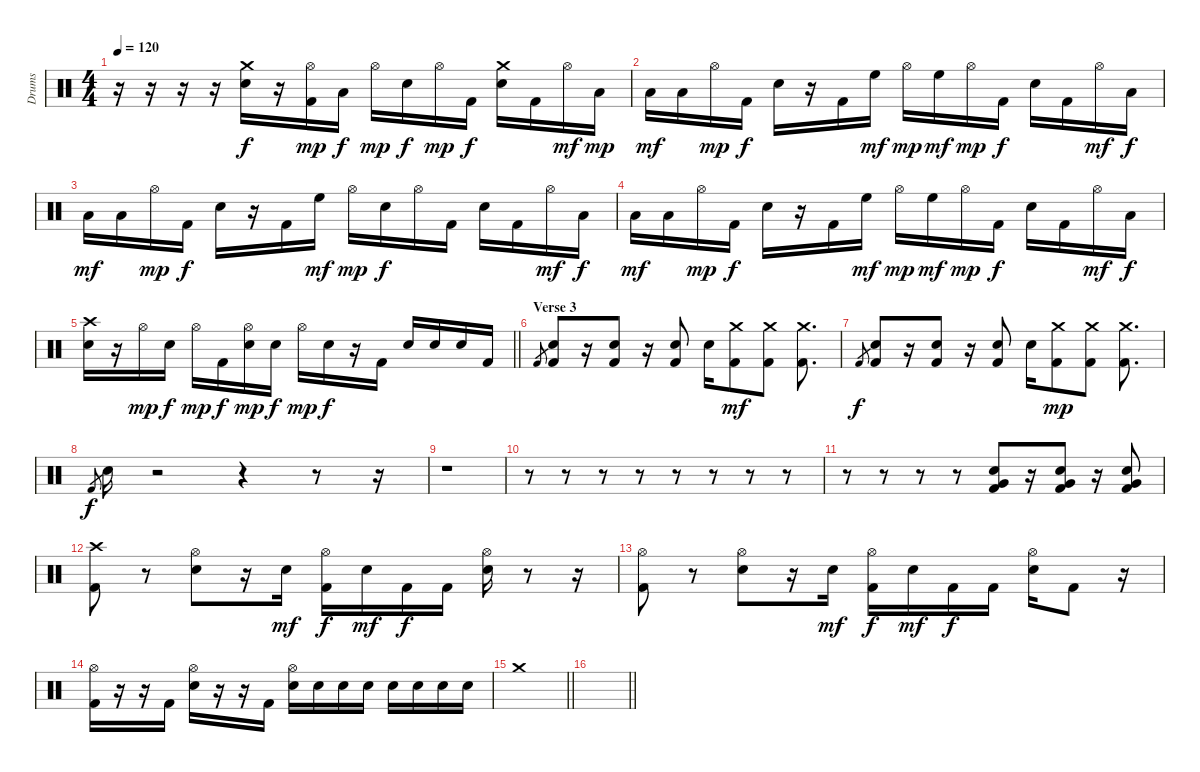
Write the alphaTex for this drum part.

\track ("Drums" "Drums") {instrument percussion}
\staff {score}
\articulation defaults
\ts (4 4)
\tempo 120
\clef neutral
\ks c
r.16{dy mp} r.16 r.16 r.16 ("Crash medium (hit)" "Electric Snare (hit)").16{dy f} r.16 ("Hi-Hat (open)" "Kick (hit) 2").16{dy mp} "Low Tom (hit)".16{dy f} "Hi-Hat (open)".16{dy mp} "Electric Snare (hit)".16{dy f} "Hi-Hat (open)".16{dy mp} "Kick (hit) 2".16{dy f} ("Crash medium (hit)" "Electric Snare (hit)").16 "Kick (hit) 2".16 "Hi-Hat (open)".16{dy mf} "Low Floor Tom (hit)".16{dy mp} |
"Low Floor Tom (hit)".16{dy mf} "Low Floor Tom (hit)".16 "Hi-Hat (open)".16{dy mp} "Kick (hit) 2".16{dy f} "Electric Snare (hit)".16 r.16 "Kick (hit) 2".16 "High Floor Tom (hit)".16{dy mf} "Hi-Hat (open)".16{dy mp} "High Floor Tom (hit)".16{dy mf} "Hi-Hat (open)".16{dy mp} "Kick (hit) 2".16{dy f} "Electric Snare (hit)".16 "Kick (hit) 2".16 "Hi-Hat (open)".16{dy mf} "Low Floor Tom (hit)".16{dy f} |
"Low Floor Tom (hit)".16{dy mf} "Low Floor Tom (hit)".16 "Hi-Hat (open)".16{dy mp} "Kick (hit) 2".16{dy f} "Electric Snare (hit)".16 r.16 "Kick (hit) 2".16 "High Floor Tom (hit)".16{dy mf} "Hi-Hat (open)".16{dy mp} "Electric Snare (hit)".16{dy f} "Hi-Hat (open)".16 "Kick (hit) 2".16 "Electric Snare (hit)".16 "Kick (hit) 2".16 "Hi-Hat (open)".16{dy mf} "Low Floor Tom (hit)".16{dy f} |
"Low Floor Tom (hit)".16{dy mf} "Low Floor Tom (hit)".16 "Hi-Hat (open)".16{dy mp} "Kick (hit) 2".16{dy f} "Electric Snare (hit)".16 r.16 "Kick (hit) 2".16 "High Floor Tom (hit)".16{dy mf} "Hi-Hat (open)".16{dy mp} "High Floor Tom (hit)".16{dy mf} "Hi-Hat (open)".16{dy mp} "Kick (hit) 2".16{dy f} "Electric Snare (hit)".16 "Kick (hit) 2".16 "Hi-Hat (open)".16{dy mf} "Low Floor Tom (hit)".16{dy f} |
\barLineRight lightlight
("Crash high (hit)" "Electric Snare (hit)").16 r.16 "Hi-Hat (open)".16{dy mp} "Electric Snare (hit)".16{dy f} "Hi-Hat (open)".16{dy mp} "Kick (hit) 2".16{dy f} ("Hi-Hat (open)" "Electric Snare (hit)").16{dy mp} "Electric Snare (hit)".16{dy f} "Hi-Hat (open)".16{dy mp} "Electric Snare (hit)".16{dy f} r.16 "Kick (hit) 2".16 "Electric Snare (hit)".16 "Electric Snare (hit)".16 "Electric Snare (hit)".16 "Kick (hit) 2".16 |
\section ("" "Verse 3")
"Kick (hit) 2".8{gr} ("Kick (hit) 2" "Electric Snare (hit)").8 r.16 ("Kick (hit) 2" "Electric Snare (hit)").8 r.16 ("Kick (hit) 2" "Electric Snare (hit)").8 "Electric Snare (hit)".16 ("Kick (hit) 2" "Crash medium (hit)").8{dy mf} ("Kick (hit) 2" "Crash medium (hit)").8 ("Kick (hit) 2" "Crash medium (hit)").8{d} |
"Kick (hit) 2".8{gr dy f} ("Kick (hit) 2" "Electric Snare (hit)").8 r.16 ("Kick (hit) 2" "Electric Snare (hit)").8 r.16 ("Kick (hit) 2" "Electric Snare (hit)").8 "Electric Snare (hit)".16 ("Kick (hit) 2" "Crash medium (hit)").8{dy mp} ("Kick (hit) 2" "Crash medium (hit)").8 ("Kick (hit) 2" "Crash medium (hit)").8{d} |
"Kick (hit) 2".8{gr dy f} "Electric Snare (hit)".16 r.2 r.4 r.8 r.16 |
r.1 |
r.8 r.8 r.8 r.8 r.8 r.8 r.8 r.8 |
r.8 r.8 r.8 r.8 ("Very Low Tom (hit)" "Kick (hit) 2" "Electric Snare (hit)").8 r.16 ("Very Low Tom (hit)" "Kick (hit) 2" "Electric Snare (hit)").8 r.16 ("Very Low Tom (hit)" "Kick (hit) 2" "Electric Snare (hit)").8 |
("Crash high (hit)" "Kick (hit) 2").8 r.8 ("Hi-Hat (open)" "Electric Snare (hit)").8 r.16 "Electric Snare (hit)".16{dy mf} ("Hi-Hat (open)" "Kick (hit) 2").16{dy f} "Electric Snare (hit)".16{dy mf} "Kick (hit) 2".16{dy f} "Kick (hit) 2".16 ("Hi-Hat (open)" "Electric Snare (hit)").16 r.8 r.16 |
("Hi-Hat (open)" "Kick (hit) 2").8 r.8 ("Hi-Hat (open)" "Electric Snare (hit)").8 r.16 "Electric Snare (hit)".16{dy mf} ("Hi-Hat (open)" "Kick (hit) 2").16{dy f} "Electric Snare (hit)".16{dy mf} "Kick (hit) 2".16{dy f} "Kick (hit) 2".16 ("Hi-Hat (open)" "Electric Snare (hit)").16 "Kick (hit) 2".8 r.16 |
("Hi-Hat (open)" "Kick (hit) 2").16 r.16 r.16 "Kick (hit) 2".16 ("Hi-Hat (open)" "Electric Snare (hit)").16 r.16 r.16 "Kick (hit) 2".16 ("Hi-Hat (open)" "Electric Snare (hit)").16 "Electric Snare (hit)".16 "Electric Snare (hit)".16 "Electric Snare (hit)".16 "Electric Snare (hit)".16 "Electric Snare (hit)".16 "Electric Snare (hit)".16 "Electric Snare (hit)".16 |
\barLineRight lightlight "Crash medium (hit)".1
|
\barLineRight lightlight
